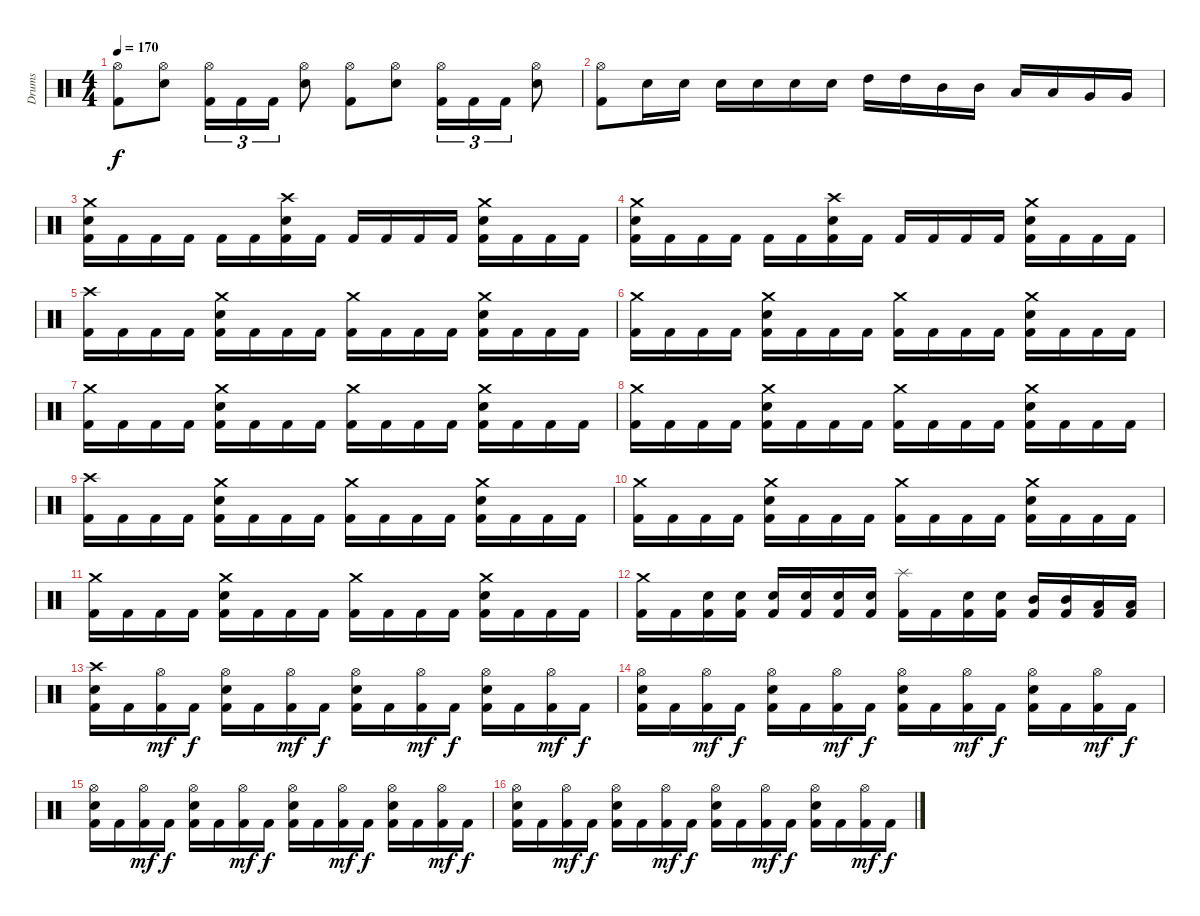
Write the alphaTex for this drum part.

\track ("Drums" "Drums") {instrument percussion}
\staff {score}
\articulation defaults
\ts (4 4)
\tempo 170
\clef neutral
\ks c
("Kick (hit) 2" "Hi-Hat (open)").8{dy f} ("Electric Snare (hit)" "Hi-Hat (open)").8 ("Kick (hit) 2" "Hi-Hat (open)").16{tu (3 2)} "Kick (hit) 2".16{tu (3 2)} "Kick (hit) 2".16{tu (3 2)} ("Electric Snare (hit)" "Hi-Hat (open)").8 ("Kick (hit) 2" "Hi-Hat (open)").8 ("Electric Snare (hit)" "Hi-Hat (open)").8 ("Kick (hit) 2" "Hi-Hat (open)").16{tu (3 2)} "Kick (hit) 2".16{tu (3 2)} "Kick (hit) 2".16{tu (3 2)} ("Electric Snare (hit)" "Hi-Hat (open)").8 |
("Kick (hit) 2" "Hi-Hat (open)").8 "Electric Snare (hit)".16 "Electric Snare (hit)".16 "Electric Snare (hit)".16 "Electric Snare (hit)".16 "Electric Snare (hit)".16 "Electric Snare (hit)".16 "High Tom (hit)".16 "High Tom (hit)".16 "Mid Tom (hit)".16 "Mid Tom (hit)".16 "Low Tom (hit)".16 "Low Tom (hit)".16 "Very Low Tom (hit)".16 "Very Low Tom (hit)".16 |
("Kick (hit) 2" "Electric Snare (hit)" "Crash medium (hit)").16 "Kick (hit) 2".16 "Kick (hit) 2".16 "Kick (hit) 2".16 "Kick (hit) 2".16 "Kick (hit) 2".16 ("Kick (hit) 2" "Electric Snare (hit)" "Crash high (hit)").16 "Kick (hit) 2".16 "Kick (hit) 2".16 "Kick (hit) 2".16 "Kick (hit) 2".16 "Kick (hit) 2".16 ("Kick (hit) 2" "Electric Snare (hit)" "Crash medium (hit)").16 "Kick (hit) 2".16 "Kick (hit) 2".16 "Kick (hit) 2".16 |
("Kick (hit) 2" "Electric Snare (hit)" "Crash medium (hit)").16 "Kick (hit) 2".16 "Kick (hit) 2".16 "Kick (hit) 2".16 "Kick (hit) 2".16 "Kick (hit) 2".16 ("Kick (hit) 2" "Electric Snare (hit)" "Crash high (hit)").16 "Kick (hit) 2".16 "Kick (hit) 2".16 "Kick (hit) 2".16 "Kick (hit) 2".16 "Kick (hit) 2".16 ("Kick (hit) 2" "Electric Snare (hit)" "Crash medium (hit)").16 "Kick (hit) 2".16 "Kick (hit) 2".16 "Kick (hit) 2".16 |
("Kick (hit) 2" "Crash high (hit)").16 "Kick (hit) 2".16 "Kick (hit) 2".16 "Kick (hit) 2".16 ("Kick (hit) 2" "Electric Snare (hit)" "Crash medium (hit)").16 "Kick (hit) 2".16 "Kick (hit) 2".16 "Kick (hit) 2".16 ("Kick (hit) 2" "Crash medium (hit)").16 "Kick (hit) 2".16 "Kick (hit) 2".16 "Kick (hit) 2".16 ("Kick (hit) 2" "Electric Snare (hit)" "Crash medium (hit)").16 "Kick (hit) 2".16 "Kick (hit) 2".16 "Kick (hit) 2".16 |
("Kick (hit) 2" "Crash medium (hit)").16 "Kick (hit) 2".16 "Kick (hit) 2".16 "Kick (hit) 2".16 ("Kick (hit) 2" "Electric Snare (hit)" "Crash medium (hit)").16 "Kick (hit) 2".16 "Kick (hit) 2".16 "Kick (hit) 2".16 ("Kick (hit) 2" "Crash medium (hit)").16 "Kick (hit) 2".16 "Kick (hit) 2".16 "Kick (hit) 2".16 ("Kick (hit) 2" "Electric Snare (hit)" "Crash medium (hit)").16 "Kick (hit) 2".16 "Kick (hit) 2".16 "Kick (hit) 2".16 |
("Kick (hit) 2" "Crash medium (hit)").16 "Kick (hit) 2".16 "Kick (hit) 2".16 "Kick (hit) 2".16 ("Kick (hit) 2" "Electric Snare (hit)" "Crash medium (hit)").16 "Kick (hit) 2".16 "Kick (hit) 2".16 "Kick (hit) 2".16 ("Kick (hit) 2" "Crash medium (hit)").16 "Kick (hit) 2".16 "Kick (hit) 2".16 "Kick (hit) 2".16 ("Kick (hit) 2" "Electric Snare (hit)" "Crash medium (hit)").16 "Kick (hit) 2".16 "Kick (hit) 2".16 "Kick (hit) 2".16 |
("Kick (hit) 2" "Crash medium (hit)").16 "Kick (hit) 2".16 "Kick (hit) 2".16 "Kick (hit) 2".16 ("Kick (hit) 2" "Electric Snare (hit)" "Crash medium (hit)").16 "Kick (hit) 2".16 "Kick (hit) 2".16 "Kick (hit) 2".16 ("Kick (hit) 2" "Crash medium (hit)").16 "Kick (hit) 2".16 "Kick (hit) 2".16 "Kick (hit) 2".16 ("Kick (hit) 2" "Electric Snare (hit)" "Crash medium (hit)").16 "Kick (hit) 2".16 "Kick (hit) 2".16 "Kick (hit) 2".16 |
("Kick (hit) 2" "Crash high (hit)").16 "Kick (hit) 2".16 "Kick (hit) 2".16 "Kick (hit) 2".16 ("Kick (hit) 2" "Electric Snare (hit)" "Crash medium (hit)").16 "Kick (hit) 2".16 "Kick (hit) 2".16 "Kick (hit) 2".16 ("Kick (hit) 2" "Crash medium (hit)").16 "Kick (hit) 2".16 "Kick (hit) 2".16 "Kick (hit) 2".16 ("Kick (hit) 2" "Electric Snare (hit)" "Crash medium (hit)").16 "Kick (hit) 2".16 "Kick (hit) 2".16 "Kick (hit) 2".16 |
("Kick (hit) 2" "Crash medium (hit)").16 "Kick (hit) 2".16 "Kick (hit) 2".16 "Kick (hit) 2".16 ("Kick (hit) 2" "Electric Snare (hit)" "Crash medium (hit)").16 "Kick (hit) 2".16 "Kick (hit) 2".16 "Kick (hit) 2".16 ("Kick (hit) 2" "Crash medium (hit)").16 "Kick (hit) 2".16 "Kick (hit) 2".16 "Kick (hit) 2".16 ("Kick (hit) 2" "Electric Snare (hit)" "Crash medium (hit)").16 "Kick (hit) 2".16 "Kick (hit) 2".16 "Kick (hit) 2".16 |
("Kick (hit) 2" "Crash medium (hit)").16 "Kick (hit) 2".16 "Kick (hit) 2".16 "Kick (hit) 2".16 ("Kick (hit) 2" "Electric Snare (hit)" "Crash medium (hit)").16 "Kick (hit) 2".16 "Kick (hit) 2".16 "Kick (hit) 2".16 ("Kick (hit) 2" "Crash medium (hit)").16 "Kick (hit) 2".16 "Kick (hit) 2".16 "Kick (hit) 2".16 ("Kick (hit) 2" "Electric Snare (hit)" "Crash medium (hit)").16 "Kick (hit) 2".16 "Kick (hit) 2".16 "Kick (hit) 2".16 |
("Kick (hit) 2" "Crash medium (hit)").16 "Kick (hit) 2".16 ("Kick (hit) 2" "Electric Snare (hit)").16 ("Kick (hit) 2" "Electric Snare (hit)").16 ("Kick (hit) 2" "Electric Snare (hit)").16 ("Kick (hit) 2" "Electric Snare (hit)").16 ("Kick (hit) 2" "Electric Snare (hit)").16 ("Kick (hit) 2" "Electric Snare (hit)").16 ("Kick (hit) 2" "Splash (hit)").16 "Kick (hit) 2".16 ("Kick (hit) 2" "Electric Snare (hit)").16 ("Kick (hit) 2" "Electric Snare (hit)").16 ("Kick (hit) 2" "Mid Tom (hit)").16 ("Kick (hit) 2" "Mid Tom (hit)").16 ("Kick (hit) 2" "Low Tom (hit)").16 ("Kick (hit) 2" "Low Tom (hit)").16 |
("Kick (hit) 2" "Electric Snare (hit)" "Crash high (hit)").16 "Kick (hit) 2".16 ("Kick (hit) 2" "Hi-Hat (open)").16{dy mf} "Kick (hit) 2".16{dy f} ("Kick (hit) 2" "Electric Snare (hit)" "Hi-Hat (open)").16 "Kick (hit) 2".16 ("Kick (hit) 2" "Hi-Hat (open)").16{dy mf} "Kick (hit) 2".16{dy f} ("Kick (hit) 2" "Electric Snare (hit)" "Hi-Hat (open)").16 "Kick (hit) 2".16 ("Kick (hit) 2" "Hi-Hat (open)").16{dy mf} "Kick (hit) 2".16{dy f} ("Kick (hit) 2" "Electric Snare (hit)" "Hi-Hat (open)").16 "Kick (hit) 2".16 ("Kick (hit) 2" "Hi-Hat (open)").16{dy mf} "Kick (hit) 2".16{dy f} |
("Kick (hit) 2" "Electric Snare (hit)" "Hi-Hat (open)").16 "Kick (hit) 2".16 ("Kick (hit) 2" "Hi-Hat (open)").16{dy mf} "Kick (hit) 2".16{dy f} ("Kick (hit) 2" "Electric Snare (hit)" "Hi-Hat (open)").16 "Kick (hit) 2".16 ("Kick (hit) 2" "Hi-Hat (open)").16{dy mf} "Kick (hit) 2".16{dy f} ("Kick (hit) 2" "Electric Snare (hit)" "Hi-Hat (open)").16 "Kick (hit) 2".16 ("Kick (hit) 2" "Hi-Hat (open)").16{dy mf} "Kick (hit) 2".16{dy f} ("Kick (hit) 2" "Electric Snare (hit)" "Hi-Hat (open)").16 "Kick (hit) 2".16 ("Kick (hit) 2" "Hi-Hat (open)").16{dy mf} "Kick (hit) 2".16{dy f} |
("Kick (hit) 2" "Electric Snare (hit)" "Hi-Hat (open)").16 "Kick (hit) 2".16 ("Kick (hit) 2" "Hi-Hat (open)").16{dy mf} "Kick (hit) 2".16{dy f} ("Kick (hit) 2" "Electric Snare (hit)" "Hi-Hat (open)").16 "Kick (hit) 2".16 ("Kick (hit) 2" "Hi-Hat (open)").16{dy mf} "Kick (hit) 2".16{dy f} ("Kick (hit) 2" "Electric Snare (hit)" "Hi-Hat (open)").16 "Kick (hit) 2".16 ("Kick (hit) 2" "Hi-Hat (open)").16{dy mf} "Kick (hit) 2".16{dy f} ("Kick (hit) 2" "Electric Snare (hit)" "Hi-Hat (open)").16 "Kick (hit) 2".16 ("Kick (hit) 2" "Hi-Hat (open)").16{dy mf} "Kick (hit) 2".16{dy f} |
("Kick (hit) 2" "Electric Snare (hit)" "Hi-Hat (open)").16 "Kick (hit) 2".16 ("Kick (hit) 2" "Hi-Hat (open)").16{dy mf} "Kick (hit) 2".16{dy f} ("Kick (hit) 2" "Electric Snare (hit)" "Hi-Hat (open)").16 "Kick (hit) 2".16 ("Kick (hit) 2" "Hi-Hat (open)").16{dy mf} "Kick (hit) 2".16{dy f} ("Kick (hit) 2" "Electric Snare (hit)" "Hi-Hat (open)").16 "Kick (hit) 2".16 ("Kick (hit) 2" "Hi-Hat (open)").16{dy mf} "Kick (hit) 2".16{dy f} ("Kick (hit) 2" "Electric Snare (hit)" "Hi-Hat (open)").16 "Kick (hit) 2".16 ("Kick (hit) 2" "Hi-Hat (open)").16{dy mf} "Kick (hit) 2".16{dy f}
